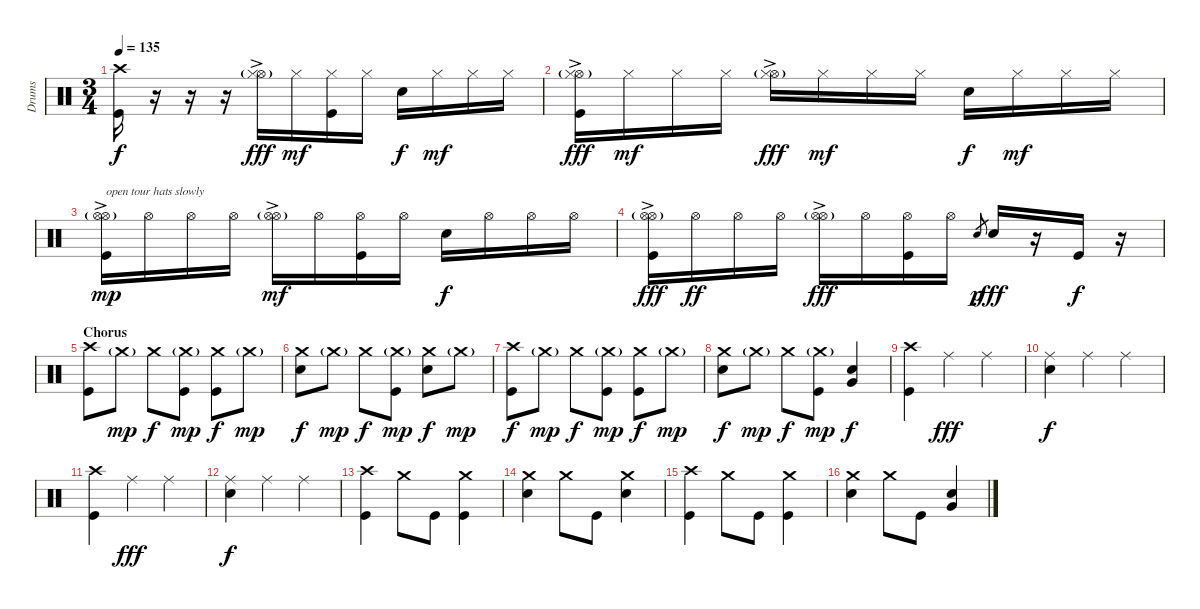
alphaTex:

\track ("Drums" "Drums") {instrument percussion}
\staff {score}
\articulation defaults
\ts (3 4)
\tempo 135
\clef neutral
\ks c
("Crash high (hit)" "Kick (hit)").16{dy f} r.16 r.16 r.16 ("Hi-Hat (open)"{g} "Hi-Hat (closed)"{ac}).16{dy fff} "Hi-Hat (closed)".16{dy mf} ("Hi-Hat (closed)" "Kick (hit)").16 "Hi-Hat (closed)".16 "Snare (hit) 2".16{dy f} "Hi-Hat (closed)".16{dy mf} "Hi-Hat (closed)".16 "Hi-Hat (closed)".16 |
("Hi-Hat (open)"{g} "Hi-Hat (closed)"{ac} "Kick (hit)").16{dy fff} "Hi-Hat (closed)".16{dy mf} "Hi-Hat (closed)".16 "Hi-Hat (closed)".16 ("Hi-Hat (open)"{g} "Hi-Hat (closed)"{ac}).16{dy fff} "Hi-Hat (closed)".16{dy mf} "Hi-Hat (closed)".16 "Hi-Hat (closed)".16 "Snare (hit) 2".16{dy f} "Hi-Hat (closed)".16{dy mf} "Hi-Hat (closed)".16 "Hi-Hat (closed)".16 |
("Hi-Hat (open)"{g} "Hi-Hat (open)"{ac} "Kick (hit)").16{txt "open tour hats slowly" dy mp} "Hi-Hat (open)".16 "Hi-Hat (open)".16 "Hi-Hat (open)".16 ("Hi-Hat (open)"{g} "Hi-Hat (open)"{ac}).16{dy mf} "Hi-Hat (open)".16 ("Hi-Hat (open)" "Kick (hit)").16 "Hi-Hat (open)".16 "Snare (hit) 2".16{dy f} "Hi-Hat (open)".16 "Hi-Hat (open)".16 "Hi-Hat (open)".16 |
("Hi-Hat (open)"{g} "Hi-Hat (open)"{ac} "Kick (hit)").16{dy fff} "Hi-Hat (open)".16{dy ff} "Hi-Hat (open)".16 "Hi-Hat (open)".16 ("Hi-Hat (open)"{g} "Hi-Hat (open)"{ac}).16{dy fff} "Hi-Hat (open)".16 ("Hi-Hat (open)" "Kick (hit)").16 "Hi-Hat (open)".16 "Snare (hit) 2".8{gr dy p} "Snare (hit) 2".16{dy fff} r.16 "Kick (hit)".16{dy f} r.16 |
\section ("" "Chorus")
("Crash high (hit)" "Kick (hit)").8 "Crash medium (hit)"{g}.8{dy mp} "Crash medium (hit)".8{dy f} ("Crash medium (hit)"{g} "Kick (hit)").8{dy mp} ("Crash medium (hit)" "Kick (hit)").8{dy f} "Crash medium (hit)"{g}.8{dy mp} |
("Crash medium (hit)" "Snare (hit) 2").8{dy f} "Crash medium (hit)"{g}.8{dy mp} "Crash medium (hit)".8{dy f} ("Crash medium (hit)"{g} "Kick (hit)").8{dy mp} ("Crash medium (hit)" "Snare (hit) 2").8{dy f} "Crash medium (hit)"{g}.8{dy mp} |
("Crash high (hit)" "Kick (hit)").8{dy f} "Crash medium (hit)"{g}.8{dy mp} "Crash medium (hit)".8{dy f} ("Crash medium (hit)"{g} "Kick (hit)").8{dy mp} ("Crash medium (hit)" "Kick (hit)").8{dy f} "Crash medium (hit)"{g}.8{dy mp} |
("Crash medium (hit)" "Snare (hit) 2").8{dy f} "Crash medium (hit)"{g}.8{dy mp} "Crash medium (hit)".8{dy f} ("Crash medium (hit)"{g} "Kick (hit)").8{dy mp} ("Very Low Tom (hit)" "Snare (hit) 2").4{dy f} |
("Crash high (hit)" "Kick (hit)").4 "Ride (middle)".4{dy fff} "Ride (middle)".4 |
("Ride (middle)" "Snare (hit) 2").4{dy f} "Ride (middle)".4 "Ride (middle)".4 |
("Crash high (hit)" "Kick (hit)").4 "Ride (middle)".4{dy fff} "Ride (middle)".4 |
("Ride (middle)" "Snare (hit) 2").4{dy f} "Ride (middle)".4 "Ride (middle)".4 |
("Crash high (hit)" "Kick (hit)").4 "Crash medium (hit)".8 "Kick (hit)".8 ("Crash medium (hit)" "Kick (hit)").4 |
("Crash medium (hit)" "Snare (hit) 2").4 "Crash medium (hit)".8 "Kick (hit)".8 ("Crash medium (hit)" "Snare (hit) 2").4 |
("Crash high (hit)" "Kick (hit)").4 "Crash medium (hit)".8 "Kick (hit)".8 ("Crash medium (hit)" "Kick (hit)").4 |
("Crash medium (hit)" "Snare (hit) 2").4 "Crash medium (hit)".8 "Kick (hit)".8 ("Very Low Tom (hit)" "Snare (hit) 2").4
